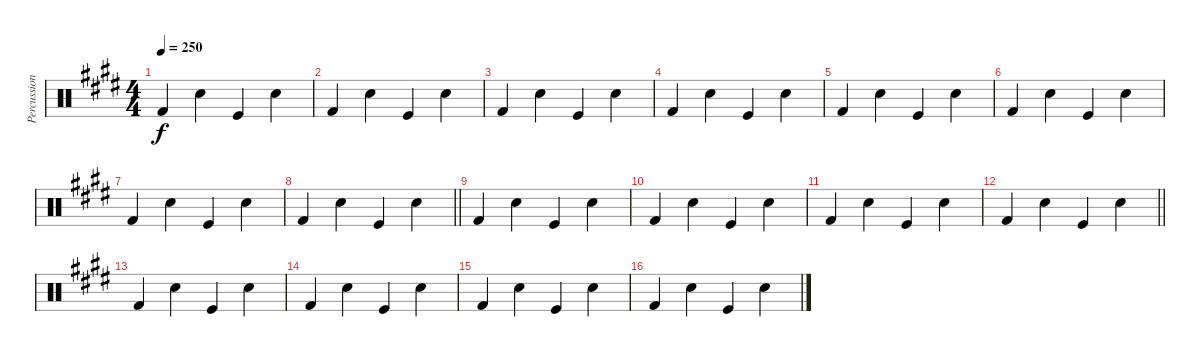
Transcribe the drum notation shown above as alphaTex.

\track ("Percussion" "Percussion") {instrument percussion}
\staff {score}
\articulation defaults
\ts (4 4)
\tempo 250
\clef neutral
\ks e "Kick (hit) 2".4{dy f} "Snare (hit) 2".4 "Kick (hit)".4 "Snare (hit) 2".4
|
"Kick (hit) 2".4 "Snare (hit) 2".4 "Kick (hit)".4 "Snare (hit) 2".4 |
"Kick (hit) 2".4 "Snare (hit) 2".4 "Kick (hit)".4 "Snare (hit) 2".4 |
"Kick (hit) 2".4 "Snare (hit) 2".4 "Kick (hit)".4 "Snare (hit) 2".4 |
"Kick (hit) 2".4 "Snare (hit) 2".4 "Kick (hit)".4 "Snare (hit) 2".4 |
"Kick (hit) 2".4 "Snare (hit) 2".4 "Kick (hit)".4 "Snare (hit) 2".4 |
"Kick (hit) 2".4 "Snare (hit) 2".4 "Kick (hit)".4 "Snare (hit) 2".4 |
\barLineRight lightlight "Kick (hit) 2".4 "Snare (hit) 2".4 "Kick (hit)".4 "Snare (hit) 2".4
|
"Kick (hit) 2".4 "Snare (hit) 2".4 "Kick (hit)".4 "Snare (hit) 2".4 |
"Kick (hit) 2".4 "Snare (hit) 2".4 "Kick (hit)".4 "Snare (hit) 2".4 |
"Kick (hit) 2".4 "Snare (hit) 2".4 "Kick (hit)".4 "Snare (hit) 2".4 |
\barLineRight lightlight "Kick (hit) 2".4 "Snare (hit) 2".4 "Kick (hit)".4 "Snare (hit) 2".4
|
"Kick (hit) 2".4 "Snare (hit) 2".4 "Kick (hit)".4 "Snare (hit) 2".4 |
"Kick (hit) 2".4 "Snare (hit) 2".4 "Kick (hit)".4 "Snare (hit) 2".4 |
"Kick (hit) 2".4 "Snare (hit) 2".4 "Kick (hit)".4 "Snare (hit) 2".4 |
"Kick (hit) 2".4 "Snare (hit) 2".4 "Kick (hit)".4 "Snare (hit) 2".4
